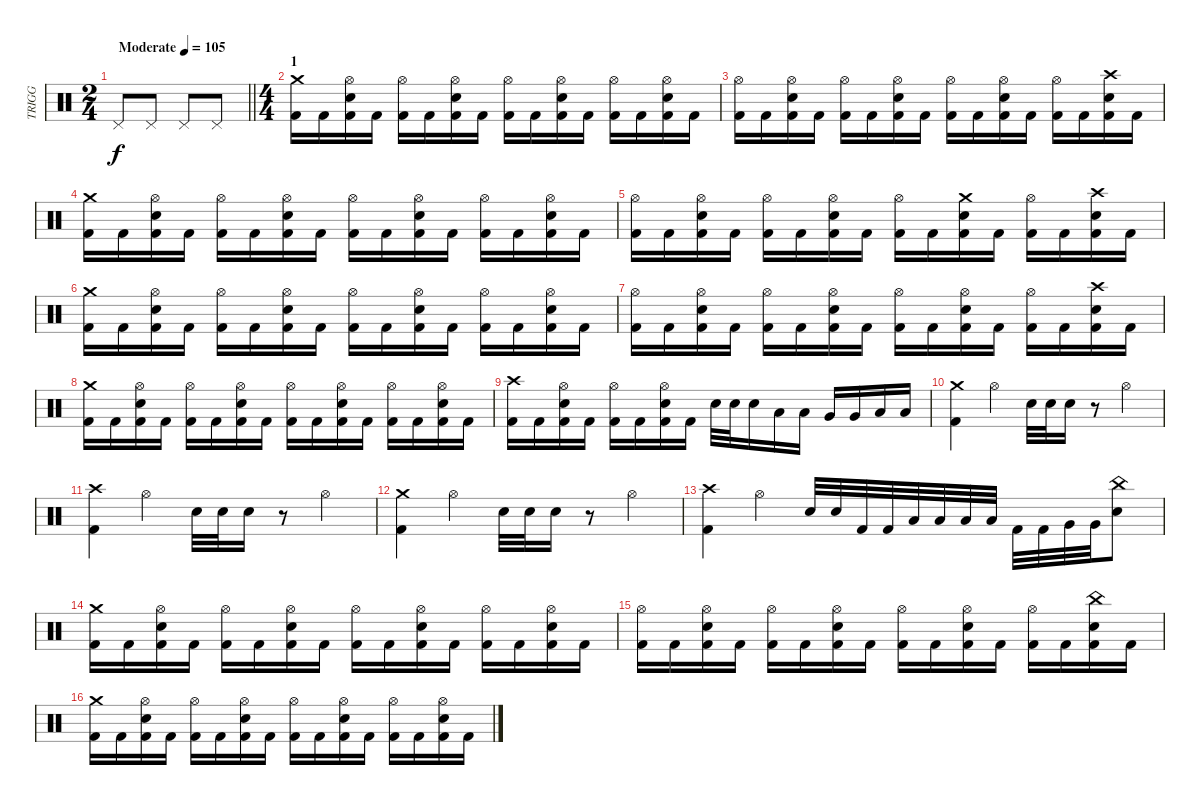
\track ("TRIGG" "TRIGG") {instrument percussion}
\staff {score}
\articulation defaults
\ts (2 4)
\tempo (105 "Moderate")
\clef neutral
\barLineRight lightlight
\ks c "Pedal Hi-Hat (hit)".8{dy f} "Pedal Hi-Hat (hit)".8 "Pedal Hi-Hat (hit)".8 "Pedal Hi-Hat (hit)".8
|
\ts (4 4)
\section ("" "1")
("Crash medium (hit)" "Kick (hit) 2").16 "Kick (hit) 2".16 ("Hi-Hat (open)" "Electric Snare (hit)" "Kick (hit) 2").16 "Kick (hit) 2".16 ("Hi-Hat (open)" "Kick (hit) 2").16 "Kick (hit) 2".16 ("Hi-Hat (open)" "Electric Snare (hit)" "Kick (hit) 2").16 "Kick (hit) 2".16 ("Hi-Hat (open)" "Kick (hit) 2").16 "Kick (hit) 2".16 ("Hi-Hat (open)" "Electric Snare (hit)" "Kick (hit) 2").16 "Kick (hit) 2".16 ("Hi-Hat (open)" "Kick (hit) 2").16 "Kick (hit) 2".16 ("Hi-Hat (open)" "Electric Snare (hit)" "Kick (hit) 2").16 "Kick (hit) 2".16 |
("Hi-Hat (open)" "Kick (hit) 2").16 "Kick (hit) 2".16 ("Hi-Hat (open)" "Electric Snare (hit)" "Kick (hit) 2").16 "Kick (hit) 2".16 ("Hi-Hat (open)" "Kick (hit) 2").16 "Kick (hit) 2".16 ("Hi-Hat (open)" "Electric Snare (hit)" "Kick (hit) 2").16 "Kick (hit) 2".16 ("Hi-Hat (open)" "Kick (hit) 2").16 "Kick (hit) 2".16 ("Hi-Hat (open)" "Electric Snare (hit)" "Kick (hit) 2").16 "Kick (hit) 2".16 ("Hi-Hat (open)" "Kick (hit) 2").16 "Kick (hit) 2".16 ("Crash high (hit)" "Electric Snare (hit)" "Kick (hit) 2").16 "Kick (hit) 2".16 |
("Crash medium (hit)" "Kick (hit) 2").16 "Kick (hit) 2".16 ("Hi-Hat (open)" "Electric Snare (hit)" "Kick (hit) 2").16 "Kick (hit) 2".16 ("Hi-Hat (open)" "Kick (hit) 2").16 "Kick (hit) 2".16 ("Hi-Hat (open)" "Electric Snare (hit)" "Kick (hit) 2").16 "Kick (hit) 2".16 ("Hi-Hat (open)" "Kick (hit) 2").16 "Kick (hit) 2".16 ("Hi-Hat (open)" "Electric Snare (hit)" "Kick (hit) 2").16 "Kick (hit) 2".16 ("Hi-Hat (open)" "Kick (hit) 2").16 "Kick (hit) 2".16 ("Hi-Hat (open)" "Electric Snare (hit)" "Kick (hit) 2").16 "Kick (hit) 2".16 |
("Hi-Hat (open)" "Kick (hit) 2").16 "Kick (hit) 2".16 ("Hi-Hat (open)" "Electric Snare (hit)" "Kick (hit) 2").16 "Kick (hit) 2".16 ("Hi-Hat (open)" "Kick (hit) 2").16 "Kick (hit) 2".16 ("Hi-Hat (open)" "Electric Snare (hit)" "Kick (hit) 2").16 "Kick (hit) 2".16 ("Hi-Hat (open)" "Kick (hit) 2").16 "Kick (hit) 2".16 ("Crash medium (hit)" "Electric Snare (hit)" "Kick (hit) 2").16 "Kick (hit) 2".16 ("Hi-Hat (open)" "Kick (hit) 2").16 "Kick (hit) 2".16 ("Crash high (hit)" "Electric Snare (hit)" "Kick (hit) 2").16 "Kick (hit) 2".16 |
("Crash medium (hit)" "Kick (hit) 2").16 "Kick (hit) 2".16 ("Hi-Hat (open)" "Electric Snare (hit)" "Kick (hit) 2").16 "Kick (hit) 2".16 ("Hi-Hat (open)" "Kick (hit) 2").16 "Kick (hit) 2".16 ("Hi-Hat (open)" "Electric Snare (hit)" "Kick (hit) 2").16 "Kick (hit) 2".16 ("Hi-Hat (open)" "Kick (hit) 2").16 "Kick (hit) 2".16 ("Hi-Hat (open)" "Electric Snare (hit)" "Kick (hit) 2").16 "Kick (hit) 2".16 ("Hi-Hat (open)" "Kick (hit) 2").16 "Kick (hit) 2".16 ("Hi-Hat (open)" "Electric Snare (hit)" "Kick (hit) 2").16 "Kick (hit) 2".16 |
("Hi-Hat (open)" "Kick (hit) 2").16 "Kick (hit) 2".16 ("Hi-Hat (open)" "Electric Snare (hit)" "Kick (hit) 2").16 "Kick (hit) 2".16 ("Hi-Hat (open)" "Kick (hit) 2").16 "Kick (hit) 2".16 ("Hi-Hat (open)" "Electric Snare (hit)" "Kick (hit) 2").16 "Kick (hit) 2".16 ("Hi-Hat (open)" "Kick (hit) 2").16 "Kick (hit) 2".16 ("Hi-Hat (open)" "Electric Snare (hit)" "Kick (hit) 2").16 "Kick (hit) 2".16 ("Hi-Hat (open)" "Kick (hit) 2").16 "Kick (hit) 2".16 ("Crash high (hit)" "Electric Snare (hit)" "Kick (hit) 2").16 "Kick (hit) 2".16 |
("Crash medium (hit)" "Kick (hit) 2").16 "Kick (hit) 2".16 ("Hi-Hat (open)" "Electric Snare (hit)" "Kick (hit) 2").16 "Kick (hit) 2".16 ("Hi-Hat (open)" "Kick (hit) 2").16 "Kick (hit) 2".16 ("Hi-Hat (open)" "Electric Snare (hit)" "Kick (hit) 2").16 "Kick (hit) 2".16 ("Hi-Hat (open)" "Kick (hit) 2").16 "Kick (hit) 2".16 ("Hi-Hat (open)" "Electric Snare (hit)" "Kick (hit) 2").16 "Kick (hit) 2".16 ("Hi-Hat (open)" "Kick (hit) 2").16 "Kick (hit) 2".16 ("Hi-Hat (open)" "Electric Snare (hit)" "Kick (hit) 2").16 "Kick (hit) 2".16 |
("Crash high (hit)" "Kick (hit) 2").16 "Kick (hit) 2".16 ("Hi-Hat (open)" "Electric Snare (hit)" "Kick (hit) 2").16 "Kick (hit) 2".16 ("Hi-Hat (open)" "Kick (hit) 2").16 "Kick (hit) 2".16 ("Hi-Hat (open)" "Electric Snare (hit)" "Kick (hit) 2").16 "Kick (hit) 2".16 "Electric Snare (hit)".32 "Electric Snare (hit)".32 "Electric Snare (hit)".16 "Low Tom (hit)".16 "Low Tom (hit)".16 "Very Low Tom (hit)".16 "Very Low Tom (hit)".16 "Low Floor Tom (hit)".16 "Low Floor Tom (hit)".16 |
("Crash medium (hit)" "Kick (hit) 2").4 "Hi-Hat (open)".4 "Electric Snare (hit)".32 "Electric Snare (hit)".32 "Electric Snare (hit)".16 r.8 "Hi-Hat (open)".4 |
("Crash high (hit)" "Kick (hit) 2").4 "Hi-Hat (open)".4 "Electric Snare (hit)".32 "Electric Snare (hit)".32 "Electric Snare (hit)".16 r.8 "Hi-Hat (open)".4 |
("Crash medium (hit)" "Kick (hit) 2").4 "Hi-Hat (open)".4 "Electric Snare (hit)".32 "Electric Snare (hit)".32 "Electric Snare (hit)".16 r.8 "Hi-Hat (open)".4 |
("Crash high (hit)" "Kick (hit) 2").4 "Hi-Hat (open)".4 "Electric Snare (hit)".32 "Electric Snare (hit)".32 "Kick (hit) 2".32 "Kick (hit) 2".32 "Low Tom (hit)".32 "Low Tom (hit)".32 "Low Tom (hit)".32 "Low Tom (hit)".32 "Kick (hit) 2".32 "Kick (hit) 2".32 "Very Low Tom (hit)".32 "Very Low Tom (hit)".32 ("China (hit)" "Electric Snare (hit)").8 |
("Crash medium (hit)" "Kick (hit) 2").16 "Kick (hit) 2".16 ("Hi-Hat (open)" "Electric Snare (hit)" "Kick (hit) 2").16 "Kick (hit) 2".16 ("Hi-Hat (open)" "Kick (hit) 2").16 "Kick (hit) 2".16 ("Hi-Hat (open)" "Electric Snare (hit)" "Kick (hit) 2").16 "Kick (hit) 2".16 ("Hi-Hat (open)" "Kick (hit) 2").16 "Kick (hit) 2".16 ("Hi-Hat (open)" "Electric Snare (hit)" "Kick (hit) 2").16 "Kick (hit) 2".16 ("Hi-Hat (open)" "Kick (hit) 2").16 "Kick (hit) 2".16 ("Hi-Hat (open)" "Electric Snare (hit)" "Kick (hit) 2").16 "Kick (hit) 2".16 |
("Hi-Hat (open)" "Kick (hit) 2").16 "Kick (hit) 2".16 ("Hi-Hat (open)" "Electric Snare (hit)" "Kick (hit) 2").16 "Kick (hit) 2".16 ("Hi-Hat (open)" "Kick (hit) 2").16 "Kick (hit) 2".16 ("Hi-Hat (open)" "Electric Snare (hit)" "Kick (hit) 2").16 "Kick (hit) 2".16 ("Hi-Hat (open)" "Kick (hit) 2").16 "Kick (hit) 2".16 ("Hi-Hat (open)" "Electric Snare (hit)" "Kick (hit) 2").16 "Kick (hit) 2".16 ("Hi-Hat (open)" "Kick (hit) 2").16 "Kick (hit) 2".16 ("China (hit)" "Electric Snare (hit)" "Kick (hit) 2").16 "Kick (hit) 2".16 |
("Crash medium (hit)" "Kick (hit) 2").16 "Kick (hit) 2".16 ("Hi-Hat (open)" "Electric Snare (hit)" "Kick (hit) 2").16 "Kick (hit) 2".16 ("Hi-Hat (open)" "Kick (hit) 2").16 "Kick (hit) 2".16 ("Hi-Hat (open)" "Electric Snare (hit)" "Kick (hit) 2").16 "Kick (hit) 2".16 ("Hi-Hat (open)" "Kick (hit) 2").16 "Kick (hit) 2".16 ("Hi-Hat (open)" "Electric Snare (hit)" "Kick (hit) 2").16 "Kick (hit) 2".16 ("Hi-Hat (open)" "Kick (hit) 2").16 "Kick (hit) 2".16 ("Hi-Hat (open)" "Electric Snare (hit)" "Kick (hit) 2").16 "Kick (hit) 2".16
